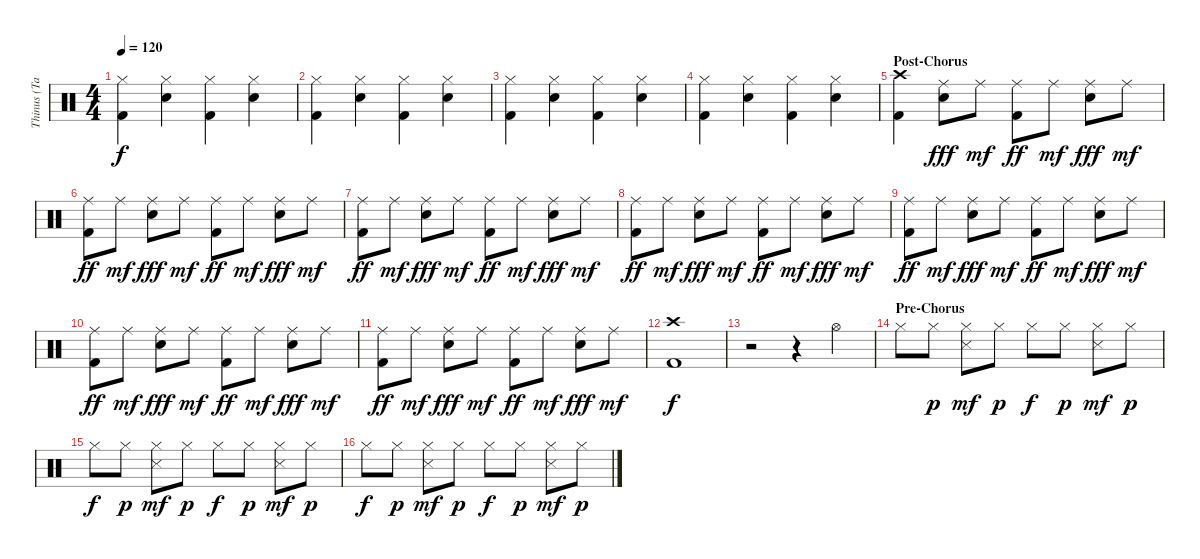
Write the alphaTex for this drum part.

\track ("Thinus (Tain) Odendaal - Drums" "Thinus (Ta") {instrument percussion}
\staff {score}
\articulation defaults
\ts (4 4)
\tempo 120
\clef neutral
\ks c
("Hi-Hat (closed)" "Kick (hit) 2").4{dy f} ("Hi-Hat (closed)" "Snare (hit) 2").4 ("Hi-Hat (closed)" "Kick (hit) 2").4 ("Hi-Hat (closed)" "Snare (hit) 2").4 |
("Hi-Hat (closed)" "Kick (hit) 2").4 ("Hi-Hat (closed)" "Snare (hit) 2").4 ("Hi-Hat (closed)" "Kick (hit) 2").4 ("Hi-Hat (closed)" "Snare (hit) 2").4 |
("Hi-Hat (closed)" "Kick (hit) 2").4 ("Hi-Hat (closed)" "Snare (hit) 2").4 ("Hi-Hat (closed)" "Kick (hit) 2").4 ("Hi-Hat (closed)" "Snare (hit) 2").4 |
("Hi-Hat (closed)" "Kick (hit) 2").4 ("Hi-Hat (closed)" "Snare (hit) 2").4 ("Hi-Hat (closed)" "Kick (hit) 2").4 ("Hi-Hat (closed)" "Snare (hit) 2").4 |
\section ("" "Post-Chorus")
("Crash high (hit)" "Kick (hit) 2").4 ("Ride (middle)" "Snare (hit) 2").8{dy fff} "Ride (middle)".8{dy mf} ("Ride (middle)" "Kick (hit) 2").8{dy ff} "Ride (middle)".8{dy mf} ("Ride (middle)" "Snare (hit) 2").8{dy fff} "Ride (middle)".8{dy mf} |
("Ride (middle)" "Kick (hit) 2").8{dy ff} "Ride (middle)".8{dy mf} ("Ride (middle)" "Snare (hit) 2").8{dy fff} "Ride (middle)".8{dy mf} ("Ride (middle)" "Kick (hit) 2").8{dy ff} "Ride (middle)".8{dy mf} ("Ride (middle)" "Snare (hit) 2").8{dy fff} "Ride (middle)".8{dy mf} |
("Ride (middle)" "Kick (hit) 2").8{dy ff} "Ride (middle)".8{dy mf} ("Ride (middle)" "Snare (hit) 2").8{dy fff} "Ride (middle)".8{dy mf} ("Ride (middle)" "Kick (hit) 2").8{dy ff} "Ride (middle)".8{dy mf} ("Ride (middle)" "Snare (hit) 2").8{dy fff} "Ride (middle)".8{dy mf} |
("Ride (middle)" "Kick (hit) 2").8{dy ff} "Ride (middle)".8{dy mf} ("Ride (middle)" "Snare (hit) 2").8{dy fff} "Ride (middle)".8{dy mf} ("Ride (middle)" "Kick (hit) 2").8{dy ff} "Ride (middle)".8{dy mf} ("Ride (middle)" "Snare (hit) 2").8{dy fff} "Ride (middle)".8{dy mf} |
("Ride (middle)" "Kick (hit) 2").8{dy ff} "Ride (middle)".8{dy mf} ("Ride (middle)" "Snare (hit) 2").8{dy fff} "Ride (middle)".8{dy mf} ("Ride (middle)" "Kick (hit) 2").8{dy ff} "Ride (middle)".8{dy mf} ("Ride (middle)" "Snare (hit) 2").8{dy fff} "Ride (middle)".8{dy mf} |
("Ride (middle)" "Kick (hit) 2").8{dy ff} "Ride (middle)".8{dy mf} ("Ride (middle)" "Snare (hit) 2").8{dy fff} "Ride (middle)".8{dy mf} ("Ride (middle)" "Kick (hit) 2").8{dy ff} "Ride (middle)".8{dy mf} ("Ride (middle)" "Snare (hit) 2").8{dy fff} "Ride (middle)".8{dy mf} |
("Ride (middle)" "Kick (hit) 2").8{dy ff} "Ride (middle)".8{dy mf} ("Ride (middle)" "Snare (hit) 2").8{dy fff} "Ride (middle)".8{dy mf} ("Ride (middle)" "Kick (hit) 2").8{dy ff} "Ride (middle)".8{dy mf} ("Ride (middle)" "Snare (hit) 2").8{dy fff} "Ride (middle)".8{dy mf} |
("Crash high (hit)" "Kick (hit) 2").1{dy f} |
r.2 r.4 "Hi-Hat (open)".4 |
\section ("" "Pre-Chorus")
"Hi-Hat (closed)".8 "Hi-Hat (closed)".8{dy p} ("Hi-Hat (closed)" "Snare (side stick) 3").8{dy mf} "Hi-Hat (closed)".8{dy p} "Hi-Hat (closed)".8{dy f} "Hi-Hat (closed)".8{dy p} ("Hi-Hat (closed)" "Snare (side stick) 3").8{dy mf} "Hi-Hat (closed)".8{dy p} |
"Hi-Hat (closed)".8{dy f} "Hi-Hat (closed)".8{dy p} ("Hi-Hat (closed)" "Snare (side stick) 3").8{dy mf} "Hi-Hat (closed)".8{dy p} "Hi-Hat (closed)".8{dy f} "Hi-Hat (closed)".8{dy p} ("Hi-Hat (closed)" "Snare (side stick) 3").8{dy mf} "Hi-Hat (closed)".8{dy p} |
"Hi-Hat (closed)".8{dy f} "Hi-Hat (closed)".8{dy p} ("Hi-Hat (closed)" "Snare (side stick) 3").8{dy mf} "Hi-Hat (closed)".8{dy p} "Hi-Hat (closed)".8{dy f} "Hi-Hat (closed)".8{dy p} ("Hi-Hat (closed)" "Snare (side stick) 3").8{dy mf} "Hi-Hat (closed)".8{dy p}
